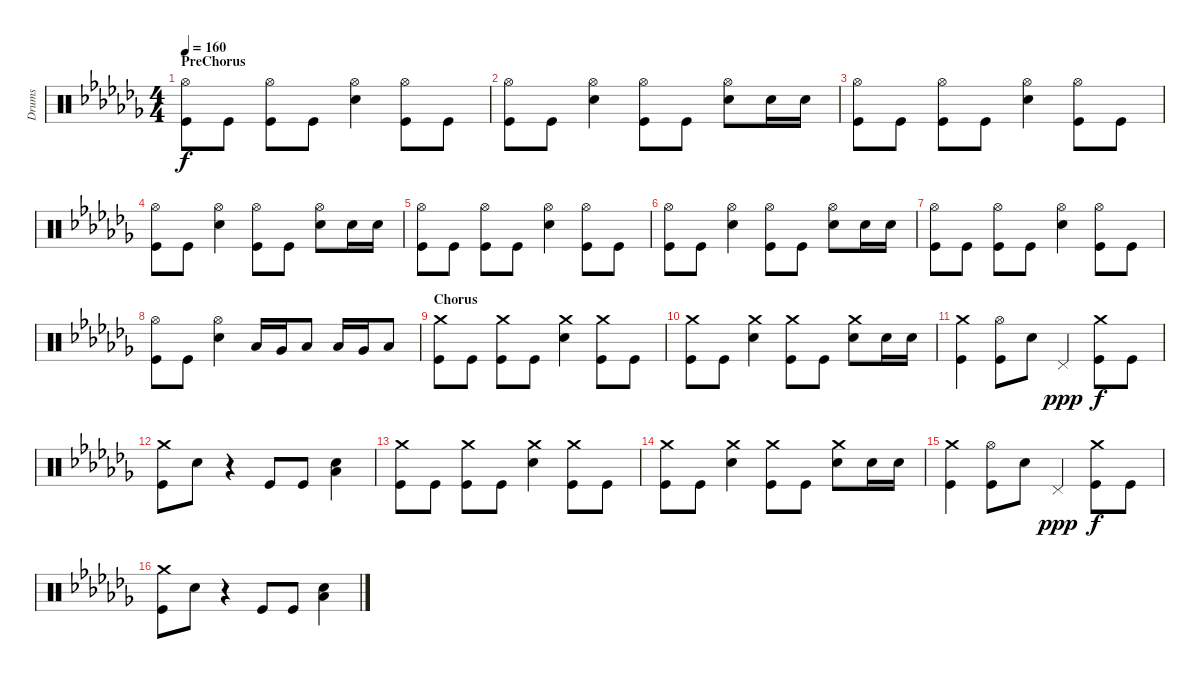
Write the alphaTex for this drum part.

\track ("Drums" "Drums") {instrument percussion}
\staff {score}
\articulation defaults
\ts (4 4)
\section ("" "PreChorus")
\tempo 160
\clef neutral
\ks cb
("Hi-Hat (open)" "Kick (hit)").8{dy f} "Kick (hit)".8 ("Hi-Hat (open)" "Kick (hit)").8 "Kick (hit)".8 ("Hi-Hat (open)" "Electric Snare (hit)").4 ("Hi-Hat (open)" "Kick (hit)").8 "Kick (hit)".8 |
("Hi-Hat (open)" "Kick (hit)").8 "Kick (hit)".8 ("Hi-Hat (open)" "Electric Snare (hit)").4 ("Hi-Hat (open)" "Kick (hit)").8 "Kick (hit)".8 ("Hi-Hat (open)" "Electric Snare (hit)").8 "Electric Snare (hit)".16 "Electric Snare (hit)".16 |
("Hi-Hat (open)" "Kick (hit)").8 "Kick (hit)".8 ("Hi-Hat (open)" "Kick (hit)").8 "Kick (hit)".8 ("Hi-Hat (open)" "Electric Snare (hit)").4 ("Hi-Hat (open)" "Kick (hit)").8 "Kick (hit)".8 |
("Hi-Hat (open)" "Kick (hit)").8 "Kick (hit)".8 ("Hi-Hat (open)" "Electric Snare (hit)").4 ("Hi-Hat (open)" "Kick (hit)").8 "Kick (hit)".8 ("Hi-Hat (open)" "Electric Snare (hit)").8 "Electric Snare (hit)".16 "Electric Snare (hit)".16 |
("Hi-Hat (open)" "Kick (hit)").8 "Kick (hit)".8 ("Hi-Hat (open)" "Kick (hit)").8 "Kick (hit)".8 ("Hi-Hat (open)" "Electric Snare (hit)").4 ("Hi-Hat (open)" "Kick (hit)").8 "Kick (hit)".8 |
("Hi-Hat (open)" "Kick (hit)").8 "Kick (hit)".8 ("Hi-Hat (open)" "Electric Snare (hit)").4 ("Hi-Hat (open)" "Kick (hit)").8 "Kick (hit)".8 ("Hi-Hat (open)" "Electric Snare (hit)").8 "Electric Snare (hit)".16 "Electric Snare (hit)".16 |
("Hi-Hat (open)" "Kick (hit)").8 "Kick (hit)".8 ("Hi-Hat (open)" "Kick (hit)").8 "Kick (hit)".8 ("Hi-Hat (open)" "Electric Snare (hit)").4 ("Hi-Hat (open)" "Kick (hit)").8 "Kick (hit)".8 |
("Hi-Hat (open)" "Kick (hit)").8 "Kick (hit)".8 ("Hi-Hat (open)" "Electric Snare (hit)").4 "Low Tom (hit)".16 "Very Low Tom (hit)".16 "Low Floor Tom (hit)".8 "Low Tom (hit)".16 "Very Low Tom (hit)".16 "Low Floor Tom (hit)".8 |
\section ("" "Chorus")
("Crash medium (hit)" "Kick (hit)").8 "Kick (hit)".8 ("Crash medium (hit)" "Kick (hit)").8 "Kick (hit)".8 ("Crash medium (hit)" "Electric Snare (hit)").4 ("Crash medium (hit)" "Kick (hit)").8 "Kick (hit)".8 |
("Crash medium (hit)" "Kick (hit)").8 "Kick (hit)".8 ("Crash medium (hit)" "Electric Snare (hit)").4 ("Crash medium (hit)" "Kick (hit)").8 "Kick (hit)".8 ("Crash medium (hit)" "Electric Snare (hit)").8 "Electric Snare (hit)".16 "Electric Snare (hit)".16 |
("Crash medium (hit)" "Kick (hit)").4 ("Hi-Hat (open)" "Kick (hit)").8 "Electric Snare (hit)".8 "Pedal Hi-Hat (hit)".4{dy ppp} ("Crash medium (hit)" "Kick (hit)").8{dy f} "Kick (hit)".8 |
("Crash medium (hit)" "Kick (hit)").8 "Electric Snare (hit)".8 r.4 "Kick (hit)".8 "Kick (hit)".8 ("Electric Snare (hit)" "Low Floor Tom (hit)").4 |
("Crash medium (hit)" "Kick (hit)").8 "Kick (hit)".8 ("Crash medium (hit)" "Kick (hit)").8 "Kick (hit)".8 ("Crash medium (hit)" "Electric Snare (hit)").4 ("Crash medium (hit)" "Kick (hit)").8 "Kick (hit)".8 |
("Crash medium (hit)" "Kick (hit)").8 "Kick (hit)".8 ("Crash medium (hit)" "Electric Snare (hit)").4 ("Crash medium (hit)" "Kick (hit)").8 "Kick (hit)".8 ("Crash medium (hit)" "Electric Snare (hit)").8 "Electric Snare (hit)".16 "Electric Snare (hit)".16 |
("Crash medium (hit)" "Kick (hit)").4 ("Hi-Hat (open)" "Kick (hit)").8 "Electric Snare (hit)".8 "Pedal Hi-Hat (hit)".4{dy ppp} ("Crash medium (hit)" "Kick (hit)").8{dy f} "Kick (hit)".8 |
("Crash medium (hit)" "Kick (hit)").8 "Electric Snare (hit)".8 r.4 "Kick (hit)".8 "Kick (hit)".8 ("Electric Snare (hit)" "Low Floor Tom (hit)").4
